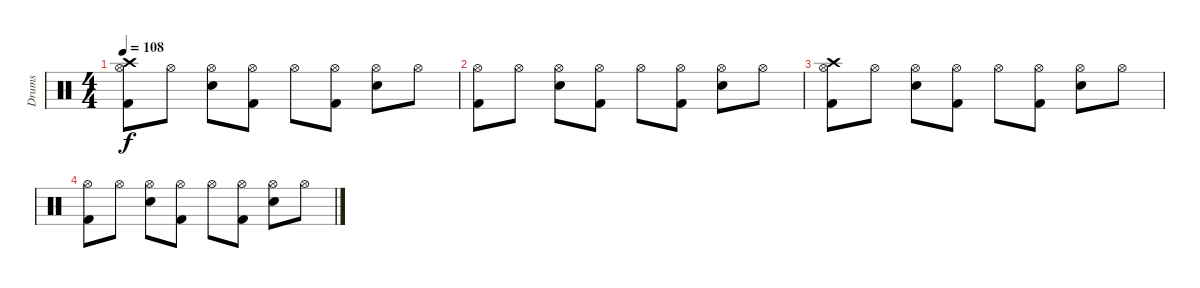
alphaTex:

\track ("Drums" "Drums") {instrument percussion}
\staff {score}
\articulation defaults
\ts (4 4)
\tempo 108
\clef neutral
\ks c
("Kick (hit) 2" "Hi-Hat (open)" "Crash high (hit)").8{dy f volume 5} "Hi-Hat (open)".8 ("Snare (hit) 2" "Hi-Hat (open)").8 ("Kick (hit) 2" "Hi-Hat (open)").8 "Hi-Hat (open)".8 ("Kick (hit) 2" "Hi-Hat (open)").8 ("Snare (hit) 2" "Hi-Hat (open)").8 "Hi-Hat (open)".8 |
("Kick (hit) 2" "Hi-Hat (open)").8 "Hi-Hat (open)".8 ("Snare (hit) 2" "Hi-Hat (open)").8 ("Kick (hit) 2" "Hi-Hat (open)").8 "Hi-Hat (open)".8 ("Kick (hit) 2" "Hi-Hat (open)").8 ("Snare (hit) 2" "Hi-Hat (open)").8 "Hi-Hat (open)".8 |
("Kick (hit) 2" "Hi-Hat (open)" "Crash high (hit)").8{volume 0} "Hi-Hat (open)".8 ("Snare (hit) 2" "Hi-Hat (open)").8 ("Kick (hit) 2" "Hi-Hat (open)").8 "Hi-Hat (open)".8 ("Kick (hit) 2" "Hi-Hat (open)").8 ("Snare (hit) 2" "Hi-Hat (open)").8 "Hi-Hat (open)".8 |
("Kick (hit) 2" "Hi-Hat (open)").8 "Hi-Hat (open)".8 ("Snare (hit) 2" "Hi-Hat (open)").8 ("Kick (hit) 2" "Hi-Hat (open)").8 "Hi-Hat (open)".8 ("Kick (hit) 2" "Hi-Hat (open)").8 ("Snare (hit) 2" "Hi-Hat (open)").8 "Hi-Hat (open)".8
